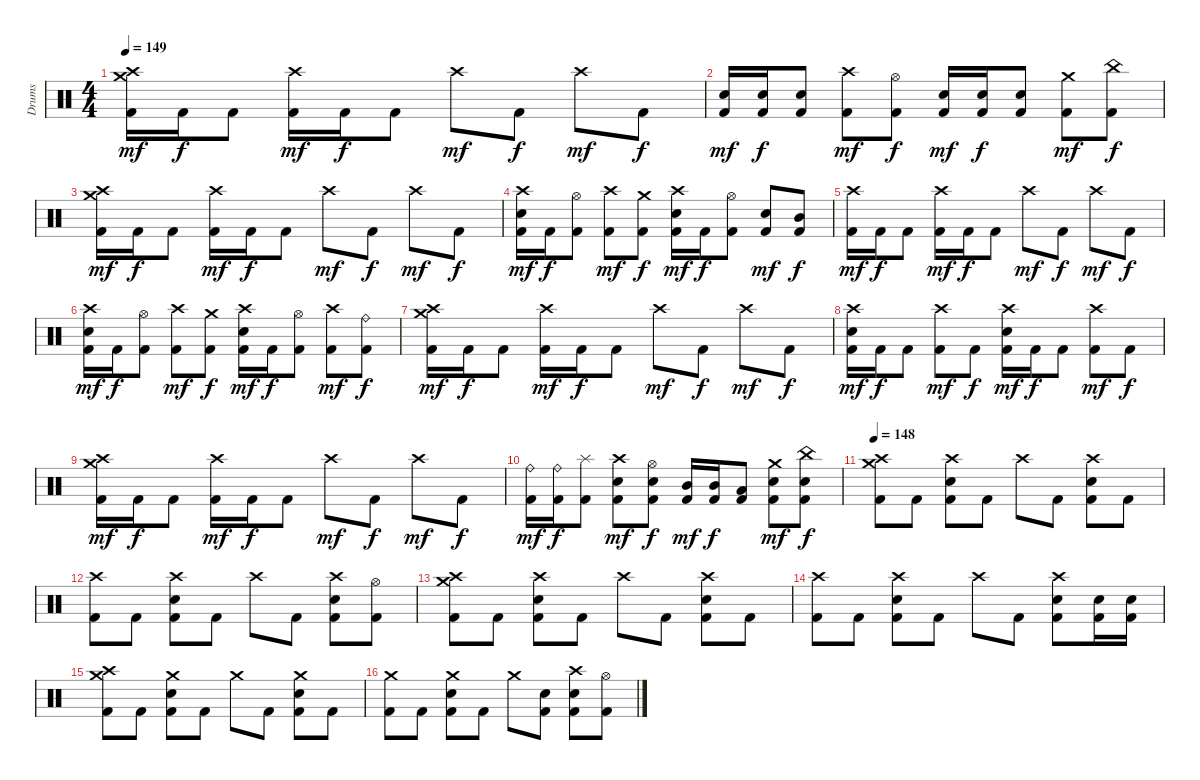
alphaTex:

\track ("Drums" "Drums") {solo instrument percussion}
\staff {score}
\articulation defaults
\ts (4 4)
\tempo 149
\clef neutral
\ks c
("Crash high (hit)" "Crash medium (hit)" "Kick (hit) 2").16{dy mf} "Kick (hit) 2".16{dy f} "Kick (hit) 2".8 ("Crash high (hit)" "Kick (hit) 2").16{dy mf} "Kick (hit) 2".16{dy f} "Kick (hit) 2".8 "Crash high (hit)".8{dy mf} "Kick (hit) 2".8{dy f} "Crash high (hit)".8{dy mf} "Kick (hit) 2".8{dy f} |
("Electric Snare (hit)" "Kick (hit) 2").16{dy mf} ("Electric Snare (hit)" "Kick (hit) 2").16{dy f} ("Electric Snare (hit)" "Kick (hit) 2").8 ("Crash high (hit)" "Kick (hit) 2").8{dy mf} ("Hi-Hat (open)" "Kick (hit) 2").8{dy f} ("Electric Snare (hit)" "Kick (hit) 2").16{dy mf} ("Electric Snare (hit)" "Kick (hit) 2").16{dy f} ("Electric Snare (hit)" "Kick (hit) 2").8 ("Crash medium (hit)" "Kick (hit) 2").8{dy mf} ("China (hit)" "Kick (hit) 2").8{dy f} |
("Crash high (hit)" "Crash medium (hit)" "Kick (hit) 2").16{dy mf} "Kick (hit) 2".16{dy f} "Kick (hit) 2".8 ("Crash high (hit)" "Kick (hit) 2").16{dy mf} "Kick (hit) 2".16{dy f} "Kick (hit) 2".8 "Crash high (hit)".8{dy mf} "Kick (hit) 2".8{dy f} "Crash high (hit)".8{dy mf} "Kick (hit) 2".8{dy f} |
("Crash high (hit)" "Electric Snare (hit)" "Kick (hit) 2").16{dy mf} "Kick (hit) 2".16{dy f} ("Hi-Hat (open)" "Kick (hit) 2").8 ("Crash high (hit)" "Kick (hit) 2").8{dy mf} ("Crash medium (hit)" "Kick (hit) 2").8{dy f} ("Crash high (hit)" "Electric Snare (hit)" "Kick (hit) 2").16{dy mf} "Kick (hit) 2".16{dy f} ("Hi-Hat (open)" "Kick (hit) 2").8 ("Electric Snare (hit)" "Kick (hit) 2").8{dy mf} ("Mid Tom (hit)" "Kick (hit) 2").8{dy f} |
("Crash high (hit)" "Kick (hit) 2").16{dy mf} "Kick (hit) 2".16{dy f} "Kick (hit) 2".8 ("Crash high (hit)" "Kick (hit) 2").16{dy mf} "Kick (hit) 2".16{dy f} "Kick (hit) 2".8 "Crash high (hit)".8{dy mf} "Kick (hit) 2".8{dy f} "Crash high (hit)".8{dy mf} "Kick (hit) 2".8{dy f} |
("Crash high (hit)" "Electric Snare (hit)" "Kick (hit) 2").16{dy mf} "Kick (hit) 2".16{dy f} ("Hi-Hat (open)" "Kick (hit) 2").8 ("Crash high (hit)" "Kick (hit) 2").8{dy mf} ("Crash medium (hit)" "Kick (hit) 2").8{dy f} ("Crash high (hit)" "Electric Snare (hit)" "Kick (hit) 2").16{dy mf} "Kick (hit) 2".16{dy f} ("Hi-Hat (open)" "Kick (hit) 2").8 ("Crash high (hit)" "Kick (hit) 2").8{dy mf} ("Ride (bell)" "Kick (hit) 2").8{dy f} |
("Crash high (hit)" "Crash medium (hit)" "Kick (hit) 2").16{dy mf} "Kick (hit) 2".16{dy f} "Kick (hit) 2".8 ("Crash high (hit)" "Kick (hit) 2").16{dy mf} "Kick (hit) 2".16{dy f} "Kick (hit) 2".8 "Crash high (hit)".8{dy mf} "Kick (hit) 2".8{dy f} "Crash high (hit)".8{dy mf} "Kick (hit) 2".8{dy f} |
("Crash high (hit)" "Electric Snare (hit)" "Kick (hit) 2").16{dy mf} "Kick (hit) 2".16{dy f} "Kick (hit) 2".8 ("Crash high (hit)" "Kick (hit) 2").8{dy mf} "Kick (hit) 2".8{dy f} ("Crash high (hit)" "Electric Snare (hit)" "Kick (hit) 2").16{dy mf} "Kick (hit) 2".16{dy f} "Kick (hit) 2".8 ("Crash high (hit)" "Kick (hit) 2").8{dy mf} "Kick (hit) 2".8{dy f} |
("Crash high (hit)" "Crash medium (hit)" "Kick (hit) 2").16{dy mf} "Kick (hit) 2".16{dy f} "Kick (hit) 2".8 ("Crash high (hit)" "Kick (hit) 2").16{dy mf} "Kick (hit) 2".16{dy f} "Kick (hit) 2".8 "Crash high (hit)".8{dy mf} "Kick (hit) 2".8{dy f} "Crash high (hit)".8{dy mf} "Kick (hit) 2".8{dy f} |
("Ride (bell)" "Kick (hit) 2").16{dy mf} ("Ride (bell)" "Kick (hit) 2").16{dy f} ("Splash (hit)" "Kick (hit) 2").8 ("Crash high (hit)" "Electric Snare (hit)" "Kick (hit) 2").8{dy mf} ("Hi-Hat (open)" "Electric Snare (hit)" "Kick (hit) 2").8{dy f} ("Mid Tom (hit)" "Kick (hit) 2").16{dy mf} ("Mid Tom (hit)" "Kick (hit) 2").16{dy f} ("Low Tom (hit)" "Kick (hit) 2").8 ("Crash medium (hit)" "Electric Snare (hit)" "Kick (hit) 2").8{dy mf} ("China (hit)" "Electric Snare (hit)" "Kick (hit) 2").8{dy f} |
\tempo 148
("Crash high (hit)" "Crash medium (hit)" "Kick (hit) 2").8 "Kick (hit) 2".8 ("Crash high (hit)" "Electric Snare (hit)" "Kick (hit) 2").8 "Kick (hit) 2".8 "Crash high (hit)".8 "Kick (hit) 2".8 ("Crash high (hit)" "Electric Snare (hit)" "Kick (hit) 2").8 "Kick (hit) 2".8 |
("Crash high (hit)" "Kick (hit) 2").8 "Kick (hit) 2".8 ("Crash high (hit)" "Electric Snare (hit)" "Kick (hit) 2").8 "Kick (hit) 2".8 "Crash high (hit)".8 "Kick (hit) 2".8 ("Crash high (hit)" "Electric Snare (hit)" "Kick (hit) 2").8 ("Hi-Hat (open)" "Kick (hit) 2").8 |
("Crash high (hit)" "Crash medium (hit)" "Kick (hit) 2").8 "Kick (hit) 2".8 ("Crash high (hit)" "Electric Snare (hit)" "Kick (hit) 2").8 "Kick (hit) 2".8 "Crash high (hit)".8 "Kick (hit) 2".8 ("Crash high (hit)" "Electric Snare (hit)" "Kick (hit) 2").8 "Kick (hit) 2".8 |
("Crash high (hit)" "Kick (hit) 2").8 "Kick (hit) 2".8 ("Crash high (hit)" "Electric Snare (hit)" "Kick (hit) 2").8 "Kick (hit) 2".8 "Crash high (hit)".8 "Kick (hit) 2".8 ("Crash high (hit)" "Electric Snare (hit)" "Kick (hit) 2").8 ("Electric Snare (hit)" "Kick (hit) 2").16 ("Electric Snare (hit)" "Kick (hit) 2").16 |
("Crash medium (hit)" "Crash high (hit)" "Kick (hit) 2").8 "Kick (hit) 2".8 ("Crash medium (hit)" "Electric Snare (hit)" "Kick (hit) 2").8 "Kick (hit) 2".8 "Crash medium (hit)".8 "Kick (hit) 2".8 ("Crash medium (hit)" "Electric Snare (hit)" "Kick (hit) 2").8 "Kick (hit) 2".8 |
("Crash medium (hit)" "Kick (hit) 2").8 "Kick (hit) 2".8 ("Crash medium (hit)" "Electric Snare (hit)" "Kick (hit) 2").8 "Kick (hit) 2".8 "Crash medium (hit)".8 ("Electric Snare (hit)" "Kick (hit) 2").8 ("Crash high (hit)" "Electric Snare (hit)" "Kick (hit) 2").8 ("Hi-Hat (open)" "Kick (hit) 2").8
